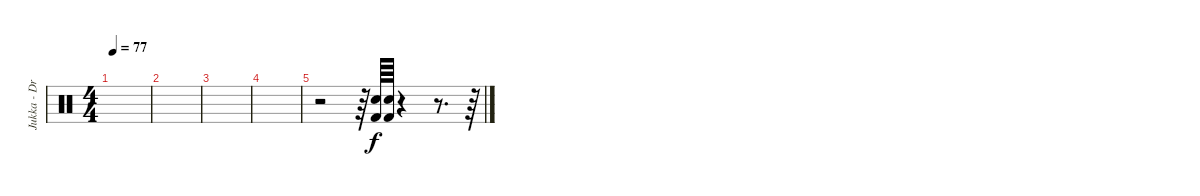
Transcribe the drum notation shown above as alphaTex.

\track ("Jukka - Drums" "Jukka - Dr") {instrument percussion}
\staff {score}
\articulation defaults
\ts (4 4)
\tempo 77
\clef neutral
\ks c
|
|
|
|
r.2 r.64 ("Electric Snare (hit)" "Kick (hit) 2").64 ("Electric Snare (hit)" "Kick (hit) 2").64 r.4 r.8{d} r.64
